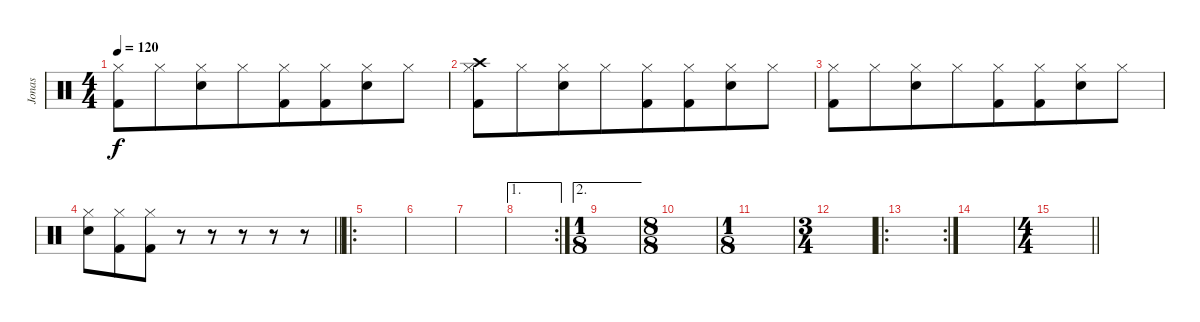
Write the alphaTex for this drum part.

\track ("Jonas" "Jonas") {instrument percussion}
\staff {score}
\articulation defaults
\ts (4 4)
\tempo 120
\clef neutral
\ks c
("Hi-Hat (closed)" "Kick (hit) 2").8{dy f} "Hi-Hat (closed)".8{beam merge} ("Hi-Hat (closed)" "Snare (hit) 2").8 "Hi-Hat (closed)".8{beam merge} ("Hi-Hat (closed)" "Kick (hit) 2").8 ("Hi-Hat (closed)" "Kick (hit) 2").8{beam merge} ("Hi-Hat (closed)" "Snare (hit) 2").8 "Hi-Hat (closed)".8 |
("Crash high (hit)" "Hi-Hat (closed)" "Kick (hit) 2").8 "Hi-Hat (closed)".8{beam merge} ("Hi-Hat (closed)" "Snare (hit) 2").8 "Hi-Hat (closed)".8{beam merge} ("Hi-Hat (closed)" "Kick (hit) 2").8 ("Hi-Hat (closed)" "Kick (hit) 2").8{beam merge} ("Hi-Hat (closed)" "Snare (hit) 2").8 "Hi-Hat (closed)".8 |
("Hi-Hat (closed)" "Kick (hit) 2").8 "Hi-Hat (closed)".8{beam merge} ("Hi-Hat (closed)" "Snare (hit) 2").8 "Hi-Hat (closed)".8{beam merge} ("Hi-Hat (closed)" "Kick (hit) 2").8 ("Hi-Hat (closed)" "Kick (hit) 2").8{beam merge} ("Hi-Hat (closed)" "Snare (hit) 2").8 "Hi-Hat (closed)".8 |
\barLineRight lightlight
("Hi-Hat (closed)" "Snare (hit) 2").8 ("Hi-Hat (closed)" "Kick (hit) 2").8{beam merge} ("Hi-Hat (closed)" "Kick (hit) 2").8 r.8 r.8 r.8 r.8 r.8 |
\ro
|
|
|
\ae 1
\rc 2
|
\ae 2
\ts (1 8)
|
\ts (8 8)
|
\ts (1 8)
|
\ts (3 4)
|
\ro
\rc 2
|
|
\ts (4 4)
\barLineRight lightlight
